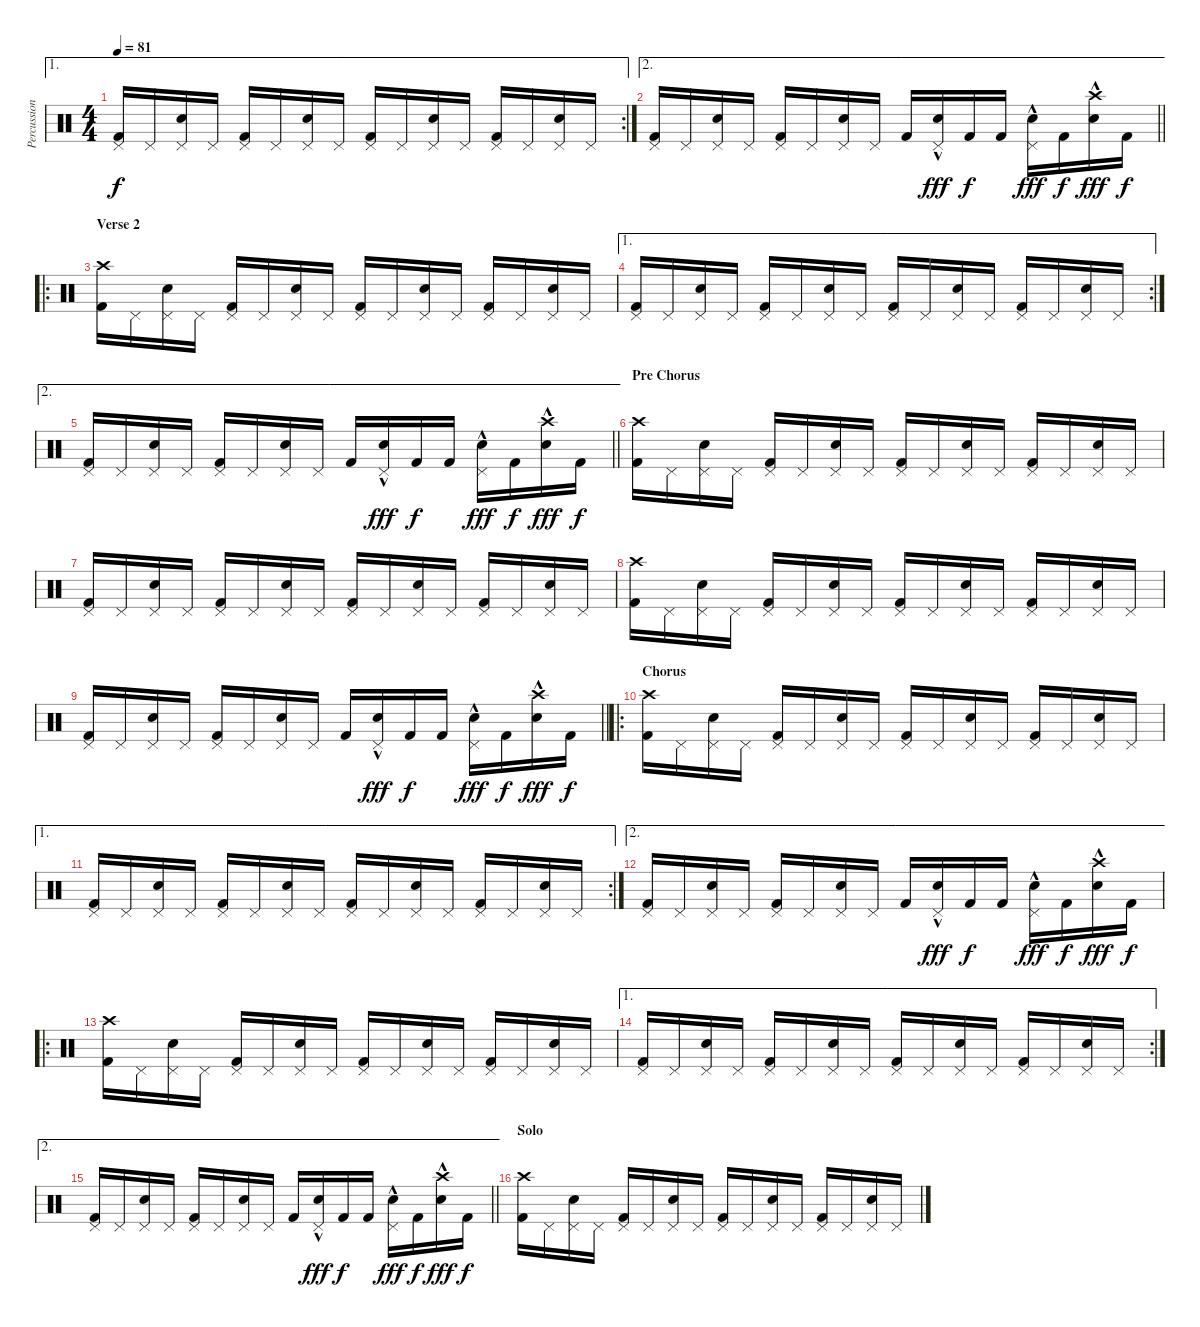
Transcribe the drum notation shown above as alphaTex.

\track ("Percussion" "Percussion") {instrument percussion}
\staff {score}
\articulation defaults
\ae 1
\rc 2
\ts (4 4)
\tempo 81
\clef neutral
\ks c
("Pedal Hi-Hat (hit)" "Kick (hit) 2").16{dy f} "Pedal Hi-Hat (hit)".16 ("Pedal Hi-Hat (hit)" "Electric Snare (hit)").16 "Pedal Hi-Hat (hit)".16 ("Pedal Hi-Hat (hit)" "Kick (hit) 2").16 "Pedal Hi-Hat (hit)".16 ("Pedal Hi-Hat (hit)" "Electric Snare (hit)").16 "Pedal Hi-Hat (hit)".16 ("Pedal Hi-Hat (hit)" "Kick (hit) 2").16 "Pedal Hi-Hat (hit)".16 ("Pedal Hi-Hat (hit)" "Electric Snare (hit)").16 "Pedal Hi-Hat (hit)".16 ("Pedal Hi-Hat (hit)" "Kick (hit) 2").16 "Pedal Hi-Hat (hit)".16 ("Pedal Hi-Hat (hit)" "Electric Snare (hit)").16 "Pedal Hi-Hat (hit)".16 |
\ae 2
\barLineRight lightlight
("Pedal Hi-Hat (hit)" "Kick (hit) 2").16 "Pedal Hi-Hat (hit)".16 ("Pedal Hi-Hat (hit)" "Electric Snare (hit)").16 "Pedal Hi-Hat (hit)".16 ("Pedal Hi-Hat (hit)" "Kick (hit) 2").16 "Pedal Hi-Hat (hit)".16 ("Pedal Hi-Hat (hit)" "Electric Snare (hit)").16 "Pedal Hi-Hat (hit)".16 "Kick (hit) 2".16 ("Pedal Hi-Hat (hit)"{hac} "Electric Snare (hit)"{hac}).16{dy fff} "Kick (hit) 2".16{dy f} "Kick (hit) 2".16 ("Pedal Hi-Hat (hit)"{hac} "Electric Snare (hit)"{hac}).16{dy fff} "Kick (hit) 2".16{dy f} ("Crash high (hit)"{hac} "Electric Snare (hit)"{hac}).16{dy fff} "Kick (hit) 2".16{dy f} |
\ro
\section ("" "Verse 2")
("Crash high (hit)" "Kick (hit) 2").16 "Pedal Hi-Hat (hit)".16 ("Pedal Hi-Hat (hit)" "Electric Snare (hit)").16 "Pedal Hi-Hat (hit)".16 ("Pedal Hi-Hat (hit)" "Kick (hit) 2").16 "Pedal Hi-Hat (hit)".16 ("Pedal Hi-Hat (hit)" "Electric Snare (hit)").16 "Pedal Hi-Hat (hit)".16 ("Pedal Hi-Hat (hit)" "Kick (hit) 2").16 "Pedal Hi-Hat (hit)".16 ("Pedal Hi-Hat (hit)" "Electric Snare (hit)").16 "Pedal Hi-Hat (hit)".16 ("Pedal Hi-Hat (hit)" "Kick (hit) 2").16 "Pedal Hi-Hat (hit)".16 ("Pedal Hi-Hat (hit)" "Electric Snare (hit)").16 "Pedal Hi-Hat (hit)".16 |
\ae 1
\rc 2
("Pedal Hi-Hat (hit)" "Kick (hit) 2").16 "Pedal Hi-Hat (hit)".16 ("Pedal Hi-Hat (hit)" "Electric Snare (hit)").16 "Pedal Hi-Hat (hit)".16 ("Pedal Hi-Hat (hit)" "Kick (hit) 2").16 "Pedal Hi-Hat (hit)".16 ("Pedal Hi-Hat (hit)" "Electric Snare (hit)").16 "Pedal Hi-Hat (hit)".16 ("Pedal Hi-Hat (hit)" "Kick (hit) 2").16 "Pedal Hi-Hat (hit)".16 ("Pedal Hi-Hat (hit)" "Electric Snare (hit)").16 "Pedal Hi-Hat (hit)".16 ("Pedal Hi-Hat (hit)" "Kick (hit) 2").16 "Pedal Hi-Hat (hit)".16 ("Pedal Hi-Hat (hit)" "Electric Snare (hit)").16 "Pedal Hi-Hat (hit)".16 |
\ae 2
\barLineRight lightlight
("Pedal Hi-Hat (hit)" "Kick (hit) 2").16 "Pedal Hi-Hat (hit)".16 ("Pedal Hi-Hat (hit)" "Electric Snare (hit)").16 "Pedal Hi-Hat (hit)".16 ("Pedal Hi-Hat (hit)" "Kick (hit) 2").16 "Pedal Hi-Hat (hit)".16 ("Pedal Hi-Hat (hit)" "Electric Snare (hit)").16 "Pedal Hi-Hat (hit)".16 "Kick (hit) 2".16 ("Pedal Hi-Hat (hit)"{hac} "Electric Snare (hit)"{hac}).16{dy fff} "Kick (hit) 2".16{dy f} "Kick (hit) 2".16 ("Pedal Hi-Hat (hit)"{hac} "Electric Snare (hit)"{hac}).16{dy fff} "Kick (hit) 2".16{dy f} ("Crash high (hit)"{hac} "Electric Snare (hit)"{hac}).16{dy fff} "Kick (hit) 2".16{dy f} |
\section ("" "Pre Chorus")
("Crash high (hit)" "Kick (hit) 2").16 "Pedal Hi-Hat (hit)".16 ("Pedal Hi-Hat (hit)" "Electric Snare (hit)").16 "Pedal Hi-Hat (hit)".16 ("Pedal Hi-Hat (hit)" "Kick (hit) 2").16 "Pedal Hi-Hat (hit)".16 ("Pedal Hi-Hat (hit)" "Electric Snare (hit)").16 "Pedal Hi-Hat (hit)".16 ("Pedal Hi-Hat (hit)" "Kick (hit) 2").16 "Pedal Hi-Hat (hit)".16 ("Pedal Hi-Hat (hit)" "Electric Snare (hit)").16 "Pedal Hi-Hat (hit)".16 ("Pedal Hi-Hat (hit)" "Kick (hit) 2").16 "Pedal Hi-Hat (hit)".16 ("Pedal Hi-Hat (hit)" "Electric Snare (hit)").16 "Pedal Hi-Hat (hit)".16 |
("Pedal Hi-Hat (hit)" "Kick (hit) 2").16 "Pedal Hi-Hat (hit)".16 ("Pedal Hi-Hat (hit)" "Electric Snare (hit)").16 "Pedal Hi-Hat (hit)".16 ("Pedal Hi-Hat (hit)" "Kick (hit) 2").16 "Pedal Hi-Hat (hit)".16 ("Pedal Hi-Hat (hit)" "Electric Snare (hit)").16 "Pedal Hi-Hat (hit)".16 ("Pedal Hi-Hat (hit)" "Kick (hit) 2").16 "Pedal Hi-Hat (hit)".16 ("Pedal Hi-Hat (hit)" "Electric Snare (hit)").16 "Pedal Hi-Hat (hit)".16 ("Pedal Hi-Hat (hit)" "Kick (hit) 2").16 "Pedal Hi-Hat (hit)".16 ("Pedal Hi-Hat (hit)" "Electric Snare (hit)").16 "Pedal Hi-Hat (hit)".16 |
("Crash high (hit)" "Kick (hit) 2").16 "Pedal Hi-Hat (hit)".16 ("Pedal Hi-Hat (hit)" "Electric Snare (hit)").16 "Pedal Hi-Hat (hit)".16 ("Pedal Hi-Hat (hit)" "Kick (hit) 2").16 "Pedal Hi-Hat (hit)".16 ("Pedal Hi-Hat (hit)" "Electric Snare (hit)").16 "Pedal Hi-Hat (hit)".16 ("Pedal Hi-Hat (hit)" "Kick (hit) 2").16 "Pedal Hi-Hat (hit)".16 ("Pedal Hi-Hat (hit)" "Electric Snare (hit)").16 "Pedal Hi-Hat (hit)".16 ("Pedal Hi-Hat (hit)" "Kick (hit) 2").16 "Pedal Hi-Hat (hit)".16 ("Pedal Hi-Hat (hit)" "Electric Snare (hit)").16 "Pedal Hi-Hat (hit)".16 |
\barLineRight lightlight
("Pedal Hi-Hat (hit)" "Kick (hit) 2").16 "Pedal Hi-Hat (hit)".16 ("Pedal Hi-Hat (hit)" "Electric Snare (hit)").16 "Pedal Hi-Hat (hit)".16 ("Pedal Hi-Hat (hit)" "Kick (hit) 2").16 "Pedal Hi-Hat (hit)".16 ("Pedal Hi-Hat (hit)" "Electric Snare (hit)").16 "Pedal Hi-Hat (hit)".16 "Kick (hit) 2".16 ("Pedal Hi-Hat (hit)"{hac} "Electric Snare (hit)"{hac}).16{dy fff} "Kick (hit) 2".16{dy f} "Kick (hit) 2".16 ("Pedal Hi-Hat (hit)"{hac} "Electric Snare (hit)"{hac}).16{dy fff} "Kick (hit) 2".16{dy f} ("Crash high (hit)"{hac} "Electric Snare (hit)"{hac}).16{dy fff} "Kick (hit) 2".16{dy f} |
\ro
\section ("" "Chorus")
("Crash high (hit)" "Kick (hit) 2").16 "Pedal Hi-Hat (hit)".16 ("Pedal Hi-Hat (hit)" "Electric Snare (hit)").16 "Pedal Hi-Hat (hit)".16 ("Pedal Hi-Hat (hit)" "Kick (hit) 2").16 "Pedal Hi-Hat (hit)".16 ("Pedal Hi-Hat (hit)" "Electric Snare (hit)").16 "Pedal Hi-Hat (hit)".16 ("Pedal Hi-Hat (hit)" "Kick (hit) 2").16 "Pedal Hi-Hat (hit)".16 ("Pedal Hi-Hat (hit)" "Electric Snare (hit)").16 "Pedal Hi-Hat (hit)".16 ("Pedal Hi-Hat (hit)" "Kick (hit) 2").16 "Pedal Hi-Hat (hit)".16 ("Pedal Hi-Hat (hit)" "Electric Snare (hit)").16 "Pedal Hi-Hat (hit)".16 |
\ae 1
\rc 2
("Pedal Hi-Hat (hit)" "Kick (hit) 2").16 "Pedal Hi-Hat (hit)".16 ("Pedal Hi-Hat (hit)" "Electric Snare (hit)").16 "Pedal Hi-Hat (hit)".16 ("Pedal Hi-Hat (hit)" "Kick (hit) 2").16 "Pedal Hi-Hat (hit)".16 ("Pedal Hi-Hat (hit)" "Electric Snare (hit)").16 "Pedal Hi-Hat (hit)".16 ("Pedal Hi-Hat (hit)" "Kick (hit) 2").16 "Pedal Hi-Hat (hit)".16 ("Pedal Hi-Hat (hit)" "Electric Snare (hit)").16 "Pedal Hi-Hat (hit)".16 ("Pedal Hi-Hat (hit)" "Kick (hit) 2").16 "Pedal Hi-Hat (hit)".16 ("Pedal Hi-Hat (hit)" "Electric Snare (hit)").16 "Pedal Hi-Hat (hit)".16 |
\ae 2
("Pedal Hi-Hat (hit)" "Kick (hit) 2").16 "Pedal Hi-Hat (hit)".16 ("Pedal Hi-Hat (hit)" "Electric Snare (hit)").16 "Pedal Hi-Hat (hit)".16 ("Pedal Hi-Hat (hit)" "Kick (hit) 2").16 "Pedal Hi-Hat (hit)".16 ("Pedal Hi-Hat (hit)" "Electric Snare (hit)").16 "Pedal Hi-Hat (hit)".16 "Kick (hit) 2".16 ("Pedal Hi-Hat (hit)"{hac} "Electric Snare (hit)"{hac}).16{dy fff} "Kick (hit) 2".16{dy f} "Kick (hit) 2".16 ("Pedal Hi-Hat (hit)"{hac} "Electric Snare (hit)"{hac}).16{dy fff} "Kick (hit) 2".16{dy f} ("Crash high (hit)"{hac} "Electric Snare (hit)"{hac}).16{dy fff} "Kick (hit) 2".16{dy f} |
\ro
("Crash high (hit)" "Kick (hit) 2").16 "Pedal Hi-Hat (hit)".16 ("Pedal Hi-Hat (hit)" "Electric Snare (hit)").16 "Pedal Hi-Hat (hit)".16 ("Pedal Hi-Hat (hit)" "Kick (hit) 2").16 "Pedal Hi-Hat (hit)".16 ("Pedal Hi-Hat (hit)" "Electric Snare (hit)").16 "Pedal Hi-Hat (hit)".16 ("Pedal Hi-Hat (hit)" "Kick (hit) 2").16 "Pedal Hi-Hat (hit)".16 ("Pedal Hi-Hat (hit)" "Electric Snare (hit)").16 "Pedal Hi-Hat (hit)".16 ("Pedal Hi-Hat (hit)" "Kick (hit) 2").16 "Pedal Hi-Hat (hit)".16 ("Pedal Hi-Hat (hit)" "Electric Snare (hit)").16 "Pedal Hi-Hat (hit)".16 |
\ae 1
\rc 2
("Pedal Hi-Hat (hit)" "Kick (hit) 2").16 "Pedal Hi-Hat (hit)".16 ("Pedal Hi-Hat (hit)" "Electric Snare (hit)").16 "Pedal Hi-Hat (hit)".16 ("Pedal Hi-Hat (hit)" "Kick (hit) 2").16 "Pedal Hi-Hat (hit)".16 ("Pedal Hi-Hat (hit)" "Electric Snare (hit)").16 "Pedal Hi-Hat (hit)".16 ("Pedal Hi-Hat (hit)" "Kick (hit) 2").16 "Pedal Hi-Hat (hit)".16 ("Pedal Hi-Hat (hit)" "Electric Snare (hit)").16 "Pedal Hi-Hat (hit)".16 ("Pedal Hi-Hat (hit)" "Kick (hit) 2").16 "Pedal Hi-Hat (hit)".16 ("Pedal Hi-Hat (hit)" "Electric Snare (hit)").16 "Pedal Hi-Hat (hit)".16 |
\ae 2
\barLineRight lightlight
("Pedal Hi-Hat (hit)" "Kick (hit) 2").16 "Pedal Hi-Hat (hit)".16 ("Pedal Hi-Hat (hit)" "Electric Snare (hit)").16 "Pedal Hi-Hat (hit)".16 ("Pedal Hi-Hat (hit)" "Kick (hit) 2").16 "Pedal Hi-Hat (hit)".16 ("Pedal Hi-Hat (hit)" "Electric Snare (hit)").16 "Pedal Hi-Hat (hit)".16 "Kick (hit) 2".16 ("Pedal Hi-Hat (hit)"{hac} "Electric Snare (hit)"{hac}).16{dy fff} "Kick (hit) 2".16{dy f} "Kick (hit) 2".16 ("Pedal Hi-Hat (hit)"{hac} "Electric Snare (hit)"{hac}).16{dy fff} "Kick (hit) 2".16{dy f} ("Crash high (hit)"{hac} "Electric Snare (hit)"{hac}).16{dy fff} "Kick (hit) 2".16{dy f} |
\section ("" "Solo")
("Crash high (hit)" "Kick (hit) 2").16 "Pedal Hi-Hat (hit)".16 ("Pedal Hi-Hat (hit)" "Electric Snare (hit)").16 "Pedal Hi-Hat (hit)".16 ("Pedal Hi-Hat (hit)" "Kick (hit) 2").16 "Pedal Hi-Hat (hit)".16 ("Pedal Hi-Hat (hit)" "Electric Snare (hit)").16 "Pedal Hi-Hat (hit)".16 ("Pedal Hi-Hat (hit)" "Kick (hit) 2").16 "Pedal Hi-Hat (hit)".16 ("Pedal Hi-Hat (hit)" "Electric Snare (hit)").16 "Pedal Hi-Hat (hit)".16 ("Pedal Hi-Hat (hit)" "Kick (hit) 2").16 "Pedal Hi-Hat (hit)".16 ("Pedal Hi-Hat (hit)" "Electric Snare (hit)").16 "Pedal Hi-Hat (hit)".16
